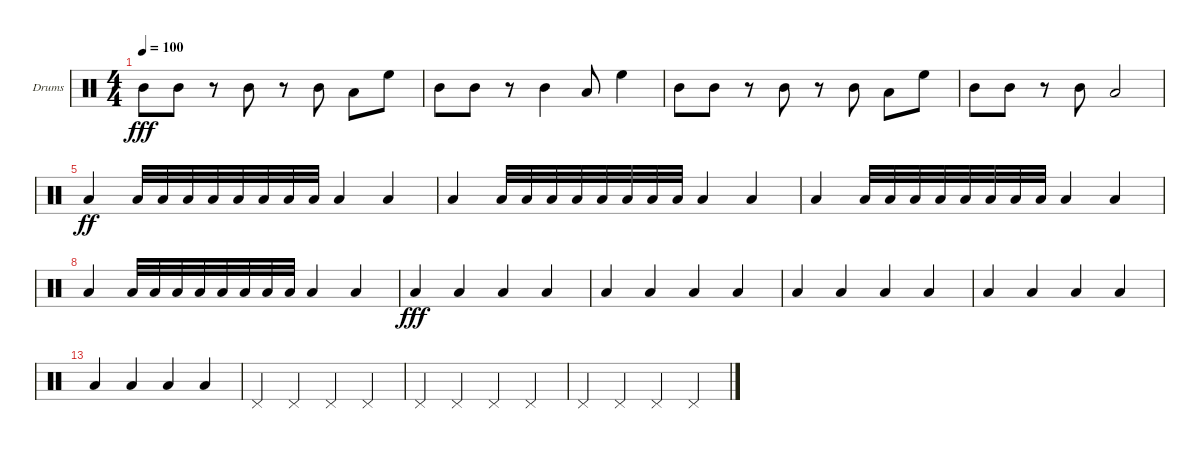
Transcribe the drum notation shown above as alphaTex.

\defaultSystemsLayout 4
\bracketExtendMode groupsimilarinstruments
\firstSystemTrackNameOrientation horizontal
\otherSystemsTrackNameOrientation horizontal
\defaultBarNumberDisplay FirstOfSystem
\track ("Drumkit" "Drums") {instrument percussion}
\staff {score}
\articulation defaults
\ts (4 4)
\tempo 100
\clef neutral
\ks c "Mid Tom (hit)".8{dy fff} "Mid Tom (hit)".8
r.8 "Mid Tom (hit)".8 r.8 "Mid Tom (hit)".8 "Low Tom (hit)".8 "High Floor Tom (hit)".8 |
"Mid Tom (hit)".8 "Mid Tom (hit)".8 r.8 "Mid Tom (hit)".4 "Low Tom (hit)".8 "High Floor Tom (hit)".4 |
"Mid Tom (hit)".8 "Mid Tom (hit)".8 r.8 "Mid Tom (hit)".8 r.8 "Mid Tom (hit)".8 "Low Tom (hit)".8 "High Floor Tom (hit)".8 |
"Mid Tom (hit)".8 "Mid Tom (hit)".8 r.8 "Mid Tom (hit)".8 "Low Tom (hit)".2 |
"Low Tom (hit)".4{dy ff} "Low Tom (hit)".32 "Low Tom (hit)".32 "Low Tom (hit)".32 "Low Tom (hit)".32 "Low Tom (hit)".32 "Low Tom (hit)".32 "Low Tom (hit)".32 "Low Tom (hit)".32 "Low Tom (hit)".4 "Low Tom (hit)".4 |
"Low Tom (hit)".4 "Low Tom (hit)".32 "Low Tom (hit)".32 "Low Tom (hit)".32 "Low Tom (hit)".32 "Low Tom (hit)".32 "Low Tom (hit)".32 "Low Tom (hit)".32 "Low Tom (hit)".32 "Low Tom (hit)".4 "Low Tom (hit)".4 |
"Low Tom (hit)".4 "Low Tom (hit)".32 "Low Tom (hit)".32 "Low Tom (hit)".32 "Low Tom (hit)".32 "Low Tom (hit)".32 "Low Tom (hit)".32 "Low Tom (hit)".32 "Low Tom (hit)".32 "Low Tom (hit)".4 "Low Tom (hit)".4 |
"Low Tom (hit)".4 "Low Tom (hit)".32 "Low Tom (hit)".32 "Low Tom (hit)".32 "Low Tom (hit)".32 "Low Tom (hit)".32 "Low Tom (hit)".32 "Low Tom (hit)".32 "Low Tom (hit)".32 "Low Tom (hit)".4 "Low Tom (hit)".4 |
"Low Tom (hit)".4{dy fff} "Low Tom (hit)".4 "Low Tom (hit)".4 "Low Tom (hit)".4 |
"Low Tom (hit)".4 "Low Tom (hit)".4 "Low Tom (hit)".4 "Low Tom (hit)".4 |
"Low Tom (hit)".4 "Low Tom (hit)".4 "Low Tom (hit)".4 "Low Tom (hit)".4 |
"Low Tom (hit)".4 "Low Tom (hit)".4 "Low Tom (hit)".4 "Low Tom (hit)".4 |
"Low Tom (hit)".4 "Low Tom (hit)".4 "Low Tom (hit)".4 "Low Tom (hit)".4 |
"Pedal Hi-Hat (hit)".4 "Pedal Hi-Hat (hit)".4 "Pedal Hi-Hat (hit)".4 "Pedal Hi-Hat (hit)".4 |
"Pedal Hi-Hat (hit)".4 "Pedal Hi-Hat (hit)".4 "Pedal Hi-Hat (hit)".4 "Pedal Hi-Hat (hit)".4 |
"Pedal Hi-Hat (hit)".4 "Pedal Hi-Hat (hit)".4 "Pedal Hi-Hat (hit)".4 "Pedal Hi-Hat (hit)".4
